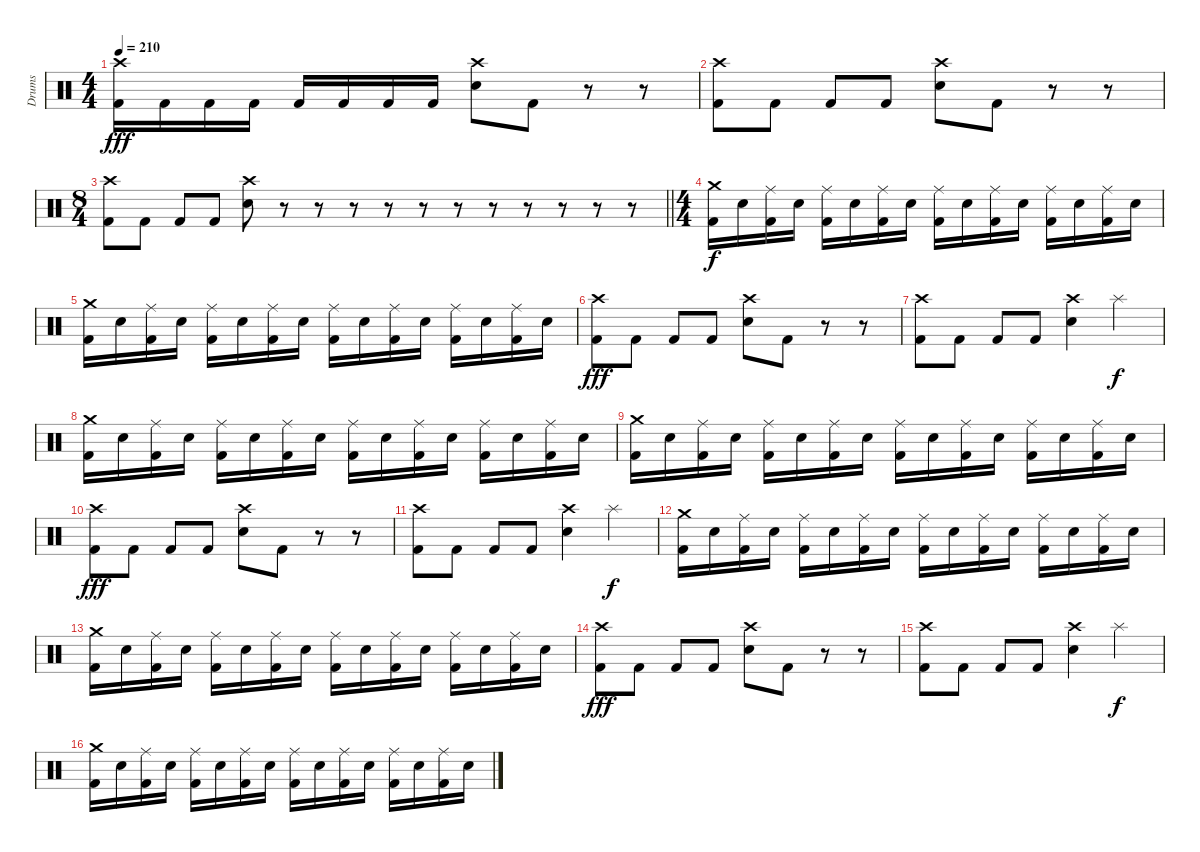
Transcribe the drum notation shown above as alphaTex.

\track ("Drums" "Drums") {instrument percussion}
\staff {score}
\articulation defaults
\ts (4 4)
\tempo 210
\clef neutral
\ks c
("Crash high (hit)" "Kick (hit) 2").16{dy fff} "Kick (hit) 2".16 "Kick (hit) 2".16 "Kick (hit) 2".16 "Kick (hit) 2".16 "Kick (hit) 2".16 "Kick (hit) 2".16 "Kick (hit) 2".16 ("Crash high (hit)" "Electric Snare (hit)").8 "Kick (hit) 2".8 r.8 r.8 |
("Crash high (hit)" "Kick (hit) 2").8 "Kick (hit) 2".8 "Kick (hit) 2".8 "Kick (hit) 2".8 ("Crash high (hit)" "Electric Snare (hit)").8 "Kick (hit) 2".8 r.8 r.8 |
\ts (8 4)
\barLineRight lightlight
("Crash high (hit)" "Kick (hit) 2").8 "Kick (hit) 2".8 "Kick (hit) 2".8 "Kick (hit) 2".8 ("Crash high (hit)" "Electric Snare (hit)").8 r.8 r.8 r.8 r.8 r.8 r.8 r.8 r.8 r.8 r.8 r.8 |
\ts (4 4)
("Crash medium (hit)" "Kick (hit) 2").16{dy f} "Electric Snare (hit)".16 ("Ride (middle)" "Kick (hit) 2").16 "Electric Snare (hit)".16 ("Ride (middle)" "Kick (hit) 2").16 "Electric Snare (hit)".16 ("Ride (middle)" "Kick (hit) 2").16 "Electric Snare (hit)".16 ("Ride (middle)" "Kick (hit) 2").16 "Electric Snare (hit)".16 ("Ride (middle)" "Kick (hit) 2").16 "Electric Snare (hit)".16 ("Ride (middle)" "Kick (hit) 2").16 "Electric Snare (hit)".16 ("Ride (middle)" "Kick (hit) 2").16 "Electric Snare (hit)".16 |
("Crash medium (hit)" "Kick (hit) 2").16 "Electric Snare (hit)".16 ("Ride (middle)" "Kick (hit) 2").16 "Electric Snare (hit)".16 ("Ride (middle)" "Kick (hit) 2").16 "Electric Snare (hit)".16 ("Ride (middle)" "Kick (hit) 2").16 "Electric Snare (hit)".16 ("Ride (middle)" "Kick (hit) 2").16 "Electric Snare (hit)".16 ("Ride (middle)" "Kick (hit) 2").16 "Electric Snare (hit)".16 ("Ride (middle)" "Kick (hit) 2").16 "Electric Snare (hit)".16 ("Ride (middle)" "Kick (hit) 2").16 "Electric Snare (hit)".16 |
("Crash high (hit)" "Kick (hit) 2").8{dy fff} "Kick (hit) 2".8 "Kick (hit) 2".8 "Kick (hit) 2".8 ("Crash high (hit)" "Electric Snare (hit)").8 "Kick (hit) 2".8 r.8 r.8 |
("Crash high (hit)" "Kick (hit) 2").8 "Kick (hit) 2".8 "Kick (hit) 2".8 "Kick (hit) 2".8 ("Crash high (hit)" "Electric Snare (hit)").4 "Splash (hit)".4{dy f} |
("Crash medium (hit)" "Kick (hit) 2").16 "Electric Snare (hit)".16 ("Ride (middle)" "Kick (hit) 2").16 "Electric Snare (hit)".16 ("Ride (middle)" "Kick (hit) 2").16 "Electric Snare (hit)".16 ("Ride (middle)" "Kick (hit) 2").16 "Electric Snare (hit)".16 ("Ride (middle)" "Kick (hit) 2").16 "Electric Snare (hit)".16 ("Ride (middle)" "Kick (hit) 2").16 "Electric Snare (hit)".16 ("Ride (middle)" "Kick (hit) 2").16 "Electric Snare (hit)".16 ("Ride (middle)" "Kick (hit) 2").16 "Electric Snare (hit)".16 |
("Crash medium (hit)" "Kick (hit) 2").16 "Electric Snare (hit)".16 ("Ride (middle)" "Kick (hit) 2").16 "Electric Snare (hit)".16 ("Ride (middle)" "Kick (hit) 2").16 "Electric Snare (hit)".16 ("Ride (middle)" "Kick (hit) 2").16 "Electric Snare (hit)".16 ("Ride (middle)" "Kick (hit) 2").16 "Electric Snare (hit)".16 ("Ride (middle)" "Kick (hit) 2").16 "Electric Snare (hit)".16 ("Ride (middle)" "Kick (hit) 2").16 "Electric Snare (hit)".16 ("Ride (middle)" "Kick (hit) 2").16 "Electric Snare (hit)".16 |
("Crash high (hit)" "Kick (hit) 2").8{dy fff} "Kick (hit) 2".8 "Kick (hit) 2".8 "Kick (hit) 2".8 ("Crash high (hit)" "Electric Snare (hit)").8 "Kick (hit) 2".8 r.8 r.8 |
("Crash high (hit)" "Kick (hit) 2").8 "Kick (hit) 2".8 "Kick (hit) 2".8 "Kick (hit) 2".8 ("Crash high (hit)" "Electric Snare (hit)").4 "Splash (hit)".4{dy f} |
("Crash medium (hit)" "Kick (hit) 2").16 "Electric Snare (hit)".16 ("Ride (middle)" "Kick (hit) 2").16 "Electric Snare (hit)".16 ("Ride (middle)" "Kick (hit) 2").16 "Electric Snare (hit)".16 ("Ride (middle)" "Kick (hit) 2").16 "Electric Snare (hit)".16 ("Ride (middle)" "Kick (hit) 2").16 "Electric Snare (hit)".16 ("Ride (middle)" "Kick (hit) 2").16 "Electric Snare (hit)".16 ("Ride (middle)" "Kick (hit) 2").16 "Electric Snare (hit)".16 ("Ride (middle)" "Kick (hit) 2").16 "Electric Snare (hit)".16 |
("Crash medium (hit)" "Kick (hit) 2").16 "Electric Snare (hit)".16 ("Ride (middle)" "Kick (hit) 2").16 "Electric Snare (hit)".16 ("Ride (middle)" "Kick (hit) 2").16 "Electric Snare (hit)".16 ("Ride (middle)" "Kick (hit) 2").16 "Electric Snare (hit)".16 ("Ride (middle)" "Kick (hit) 2").16 "Electric Snare (hit)".16 ("Ride (middle)" "Kick (hit) 2").16 "Electric Snare (hit)".16 ("Ride (middle)" "Kick (hit) 2").16 "Electric Snare (hit)".16 ("Ride (middle)" "Kick (hit) 2").16 "Electric Snare (hit)".16 |
("Crash high (hit)" "Kick (hit) 2").8{dy fff} "Kick (hit) 2".8 "Kick (hit) 2".8 "Kick (hit) 2".8 ("Crash high (hit)" "Electric Snare (hit)").8 "Kick (hit) 2".8 r.8 r.8 |
("Crash high (hit)" "Kick (hit) 2").8 "Kick (hit) 2".8 "Kick (hit) 2".8 "Kick (hit) 2".8 ("Crash high (hit)" "Electric Snare (hit)").4 "Splash (hit)".4{dy f} |
("Crash medium (hit)" "Kick (hit) 2").16 "Electric Snare (hit)".16 ("Ride (middle)" "Kick (hit) 2").16 "Electric Snare (hit)".16 ("Ride (middle)" "Kick (hit) 2").16 "Electric Snare (hit)".16 ("Ride (middle)" "Kick (hit) 2").16 "Electric Snare (hit)".16 ("Ride (middle)" "Kick (hit) 2").16 "Electric Snare (hit)".16 ("Ride (middle)" "Kick (hit) 2").16 "Electric Snare (hit)".16 ("Ride (middle)" "Kick (hit) 2").16 "Electric Snare (hit)".16 ("Ride (middle)" "Kick (hit) 2").16 "Electric Snare (hit)".16
